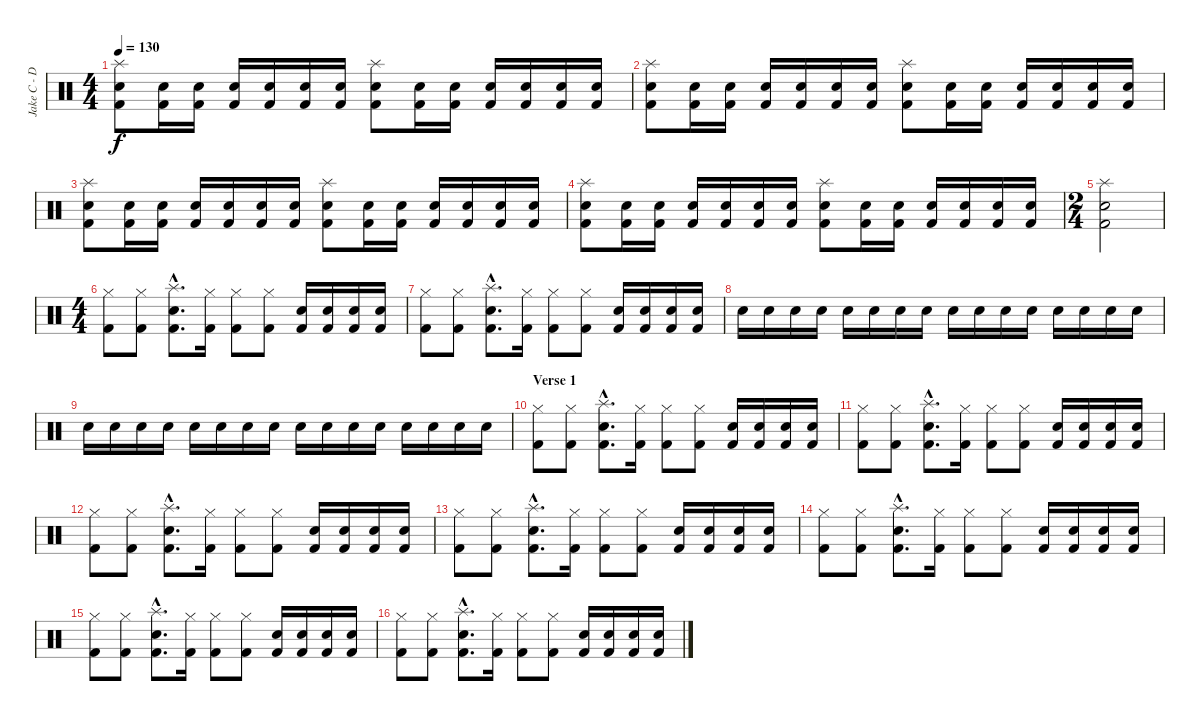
\track ("Jake C - Drums" "Jake C - D") {instrument percussion}
\staff {score}
\articulation defaults
\ts (4 4)
\tempo 130
\clef neutral
\ks c
("Splash (hit)" "Electric Snare (hit)" "Kick (hit) 2").8{dy f} ("Electric Snare (hit)" "Kick (hit) 2").16 ("Electric Snare (hit)" "Kick (hit) 2").16 ("Electric Snare (hit)" "Kick (hit) 2").16 ("Electric Snare (hit)" "Kick (hit) 2").16 ("Electric Snare (hit)" "Kick (hit) 2").16 ("Electric Snare (hit)" "Kick (hit) 2").16 ("Splash (hit)" "Electric Snare (hit)" "Kick (hit) 2").8 ("Electric Snare (hit)" "Kick (hit) 2").16 ("Electric Snare (hit)" "Kick (hit) 2").16 ("Electric Snare (hit)" "Kick (hit) 2").16 ("Electric Snare (hit)" "Kick (hit) 2").16 ("Electric Snare (hit)" "Kick (hit) 2").16 ("Electric Snare (hit)" "Kick (hit) 2").16 |
("Splash (hit)" "Electric Snare (hit)" "Kick (hit) 2").8 ("Electric Snare (hit)" "Kick (hit) 2").16 ("Electric Snare (hit)" "Kick (hit) 2").16 ("Electric Snare (hit)" "Kick (hit) 2").16 ("Electric Snare (hit)" "Kick (hit) 2").16 ("Electric Snare (hit)" "Kick (hit) 2").16 ("Electric Snare (hit)" "Kick (hit) 2").16 ("Splash (hit)" "Electric Snare (hit)" "Kick (hit) 2").8 ("Electric Snare (hit)" "Kick (hit) 2").16 ("Electric Snare (hit)" "Kick (hit) 2").16 ("Electric Snare (hit)" "Kick (hit) 2").16 ("Electric Snare (hit)" "Kick (hit) 2").16 ("Electric Snare (hit)" "Kick (hit) 2").16 ("Electric Snare (hit)" "Kick (hit) 2").16 |
("Splash (hit)" "Electric Snare (hit)" "Kick (hit) 2").8 ("Electric Snare (hit)" "Kick (hit) 2").16 ("Electric Snare (hit)" "Kick (hit) 2").16 ("Electric Snare (hit)" "Kick (hit) 2").16 ("Electric Snare (hit)" "Kick (hit) 2").16 ("Electric Snare (hit)" "Kick (hit) 2").16 ("Electric Snare (hit)" "Kick (hit) 2").16 ("Splash (hit)" "Electric Snare (hit)" "Kick (hit) 2").8 ("Electric Snare (hit)" "Kick (hit) 2").16 ("Electric Snare (hit)" "Kick (hit) 2").16 ("Electric Snare (hit)" "Kick (hit) 2").16 ("Electric Snare (hit)" "Kick (hit) 2").16 ("Electric Snare (hit)" "Kick (hit) 2").16 ("Electric Snare (hit)" "Kick (hit) 2").16 |
("Splash (hit)" "Electric Snare (hit)" "Kick (hit) 2").8 ("Electric Snare (hit)" "Kick (hit) 2").16 ("Electric Snare (hit)" "Kick (hit) 2").16 ("Electric Snare (hit)" "Kick (hit) 2").16 ("Electric Snare (hit)" "Kick (hit) 2").16 ("Electric Snare (hit)" "Kick (hit) 2").16 ("Electric Snare (hit)" "Kick (hit) 2").16 ("Splash (hit)" "Electric Snare (hit)" "Kick (hit) 2").8 ("Electric Snare (hit)" "Kick (hit) 2").16 ("Electric Snare (hit)" "Kick (hit) 2").16 ("Electric Snare (hit)" "Kick (hit) 2").16 ("Electric Snare (hit)" "Kick (hit) 2").16 ("Electric Snare (hit)" "Kick (hit) 2").16 ("Electric Snare (hit)" "Kick (hit) 2").16 |
\ts (2 4)
("Splash (hit)" "Electric Snare (hit)" "Kick (hit) 2").2 |
\ts (4 4)
("Hi-Hat (closed)" "Kick (hit) 2").8 ("Hi-Hat (closed)" "Kick (hit) 2").8 ("Splash (hit)"{hac} "Electric Snare (hit)"{hac} "Kick (hit) 2"{hac}).8{d} ("Hi-Hat (closed)" "Kick (hit) 2").16 ("Hi-Hat (closed)" "Kick (hit) 2").8 ("Hi-Hat (closed)" "Kick (hit) 2").8 ("Electric Snare (hit)" "Kick (hit) 2").16 ("Electric Snare (hit)" "Kick (hit) 2").16 ("Electric Snare (hit)" "Kick (hit) 2").16 ("Electric Snare (hit)" "Kick (hit) 2").16 |
("Hi-Hat (closed)" "Kick (hit) 2").8 ("Hi-Hat (closed)" "Kick (hit) 2").8 ("Splash (hit)"{hac} "Electric Snare (hit)"{hac} "Kick (hit) 2"{hac}).8{d} ("Hi-Hat (closed)" "Kick (hit) 2").16 ("Hi-Hat (closed)" "Kick (hit) 2").8 ("Hi-Hat (closed)" "Kick (hit) 2").8 ("Electric Snare (hit)" "Kick (hit) 2").16 ("Electric Snare (hit)" "Kick (hit) 2").16 ("Electric Snare (hit)" "Kick (hit) 2").16 ("Electric Snare (hit)" "Kick (hit) 2").16 |
"Electric Snare (hit)".16 "Electric Snare (hit)".16 "Electric Snare (hit)".16 "Electric Snare (hit)".16 "Electric Snare (hit)".16 "Electric Snare (hit)".16 "Electric Snare (hit)".16 "Electric Snare (hit)".16 "Electric Snare (hit)".16 "Electric Snare (hit)".16 "Electric Snare (hit)".16 "Electric Snare (hit)".16 "Electric Snare (hit)".16 "Electric Snare (hit)".16 "Electric Snare (hit)".16 "Electric Snare (hit)".16 |
"Electric Snare (hit)".16 "Electric Snare (hit)".16 "Electric Snare (hit)".16 "Electric Snare (hit)".16 "Electric Snare (hit)".16 "Electric Snare (hit)".16 "Electric Snare (hit)".16 "Electric Snare (hit)".16 "Electric Snare (hit)".16 "Electric Snare (hit)".16 "Electric Snare (hit)".16 "Electric Snare (hit)".16 "Electric Snare (hit)".16 "Electric Snare (hit)".16 "Electric Snare (hit)".16 "Electric Snare (hit)".16 |
\section ("" "Verse 1")
("Hi-Hat (closed)" "Kick (hit) 2").8 ("Hi-Hat (closed)" "Kick (hit) 2").8 ("Splash (hit)"{hac} "Electric Snare (hit)"{hac} "Kick (hit) 2"{hac}).8{d} ("Hi-Hat (closed)" "Kick (hit) 2").16 ("Hi-Hat (closed)" "Kick (hit) 2").8 ("Hi-Hat (closed)" "Kick (hit) 2").8 ("Electric Snare (hit)" "Kick (hit) 2").16 ("Electric Snare (hit)" "Kick (hit) 2").16 ("Electric Snare (hit)" "Kick (hit) 2").16 ("Electric Snare (hit)" "Kick (hit) 2").16 |
("Hi-Hat (closed)" "Kick (hit) 2").8 ("Hi-Hat (closed)" "Kick (hit) 2").8 ("Splash (hit)"{hac} "Electric Snare (hit)"{hac} "Kick (hit) 2"{hac}).8{d} ("Hi-Hat (closed)" "Kick (hit) 2").16 ("Hi-Hat (closed)" "Kick (hit) 2").8 ("Hi-Hat (closed)" "Kick (hit) 2").8 ("Electric Snare (hit)" "Kick (hit) 2").16 ("Electric Snare (hit)" "Kick (hit) 2").16 ("Electric Snare (hit)" "Kick (hit) 2").16 ("Electric Snare (hit)" "Kick (hit) 2").16 |
("Hi-Hat (closed)" "Kick (hit) 2").8 ("Hi-Hat (closed)" "Kick (hit) 2").8 ("Splash (hit)"{hac} "Electric Snare (hit)"{hac} "Kick (hit) 2"{hac}).8{d} ("Hi-Hat (closed)" "Kick (hit) 2").16 ("Hi-Hat (closed)" "Kick (hit) 2").8 ("Hi-Hat (closed)" "Kick (hit) 2").8 ("Electric Snare (hit)" "Kick (hit) 2").16 ("Electric Snare (hit)" "Kick (hit) 2").16 ("Electric Snare (hit)" "Kick (hit) 2").16 ("Electric Snare (hit)" "Kick (hit) 2").16 |
("Hi-Hat (closed)" "Kick (hit) 2").8 ("Hi-Hat (closed)" "Kick (hit) 2").8 ("Splash (hit)"{hac} "Electric Snare (hit)"{hac} "Kick (hit) 2"{hac}).8{d} ("Hi-Hat (closed)" "Kick (hit) 2").16 ("Hi-Hat (closed)" "Kick (hit) 2").8 ("Hi-Hat (closed)" "Kick (hit) 2").8 ("Electric Snare (hit)" "Kick (hit) 2").16 ("Electric Snare (hit)" "Kick (hit) 2").16 ("Electric Snare (hit)" "Kick (hit) 2").16 ("Electric Snare (hit)" "Kick (hit) 2").16 |
("Hi-Hat (closed)" "Kick (hit) 2").8 ("Hi-Hat (closed)" "Kick (hit) 2").8 ("Splash (hit)"{hac} "Electric Snare (hit)"{hac} "Kick (hit) 2"{hac}).8{d} ("Hi-Hat (closed)" "Kick (hit) 2").16 ("Hi-Hat (closed)" "Kick (hit) 2").8 ("Hi-Hat (closed)" "Kick (hit) 2").8 ("Electric Snare (hit)" "Kick (hit) 2").16 ("Electric Snare (hit)" "Kick (hit) 2").16 ("Electric Snare (hit)" "Kick (hit) 2").16 ("Electric Snare (hit)" "Kick (hit) 2").16 |
("Hi-Hat (closed)" "Kick (hit) 2").8 ("Hi-Hat (closed)" "Kick (hit) 2").8 ("Splash (hit)"{hac} "Electric Snare (hit)"{hac} "Kick (hit) 2"{hac}).8{d} ("Hi-Hat (closed)" "Kick (hit) 2").16 ("Hi-Hat (closed)" "Kick (hit) 2").8 ("Hi-Hat (closed)" "Kick (hit) 2").8 ("Electric Snare (hit)" "Kick (hit) 2").16 ("Electric Snare (hit)" "Kick (hit) 2").16 ("Electric Snare (hit)" "Kick (hit) 2").16 ("Electric Snare (hit)" "Kick (hit) 2").16 |
("Hi-Hat (closed)" "Kick (hit) 2").8 ("Hi-Hat (closed)" "Kick (hit) 2").8 ("Splash (hit)"{hac} "Electric Snare (hit)"{hac} "Kick (hit) 2"{hac}).8{d} ("Hi-Hat (closed)" "Kick (hit) 2").16 ("Hi-Hat (closed)" "Kick (hit) 2").8 ("Hi-Hat (closed)" "Kick (hit) 2").8 ("Electric Snare (hit)" "Kick (hit) 2").16 ("Electric Snare (hit)" "Kick (hit) 2").16 ("Electric Snare (hit)" "Kick (hit) 2").16 ("Electric Snare (hit)" "Kick (hit) 2").16
